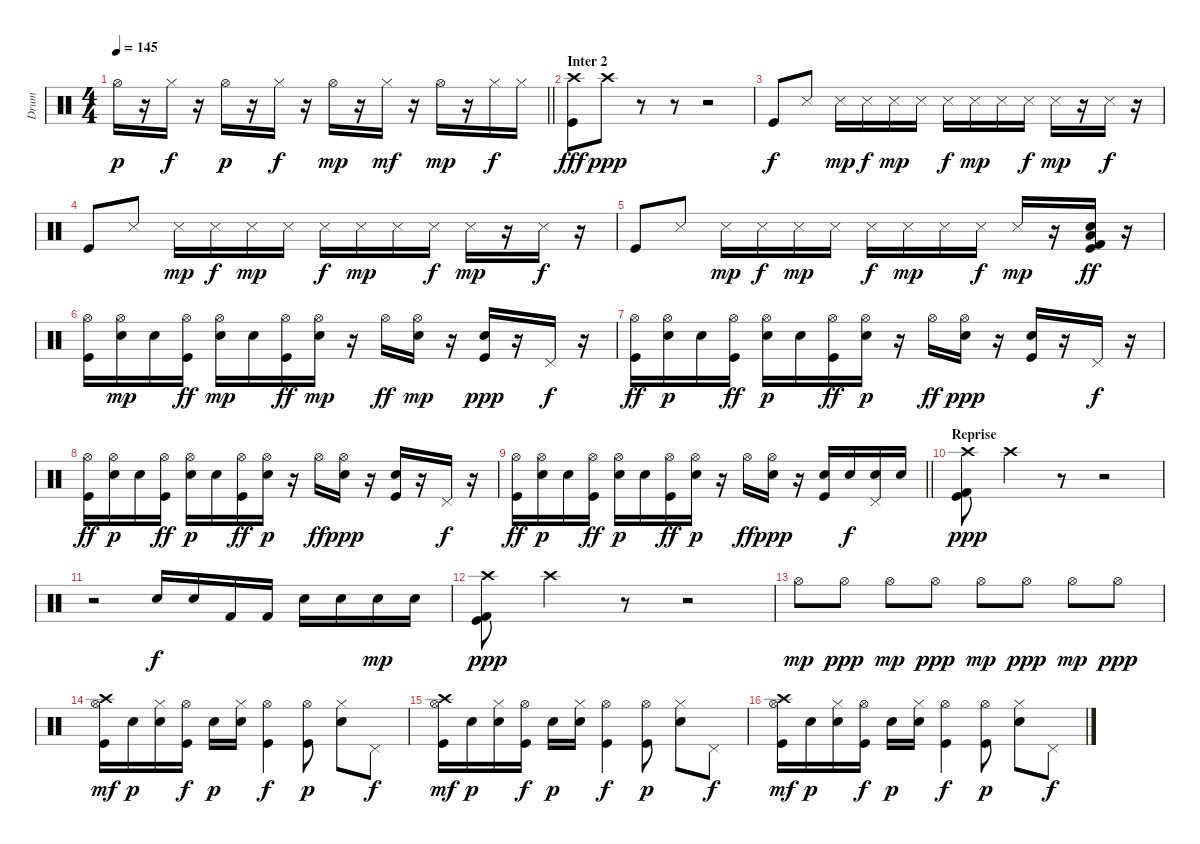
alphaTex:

\track ("Drum" "Drum") {instrument percussion}
\staff {score}
\articulation defaults
\ts (4 4)
\tempo 145
\clef neutral
\barLineRight lightlight
\ks c "Hi-Hat (open)".16{dy p}
r.16 "Hi-Hat (closed)".16{dy f} r.16 "Hi-Hat (open)".16{dy p} r.16 "Hi-Hat (closed)".16{dy f} r.16 "Hi-Hat (open)".16{dy mp} r.16 "Hi-Hat (closed)".16{dy mf} r.16 "Hi-Hat (open)".16{dy mp} r.16 "Hi-Hat (closed)".16{dy f} "Hi-Hat (closed)".16 |
\section ("" "Inter 2")
("Crash high (hit)" "Kick (hit)").8{dy fff} "Crash high (hit)".8{dy ppp} r.8 r.8 r.2 |
"Kick (hit)".8{dy f} "Snare (side stick) 3".8 "Metronome (hit)".16{dy mp} "Snare (side stick) 3".16{dy f} "Metronome (hit)".16{dy mp} "Metronome (hit)".16 "Snare (side stick) 3".16{dy f} "Metronome (hit)".16{dy mp} "Metronome (hit)".16 "Snare (side stick) 3".16{dy f} "Metronome (hit)".16{dy mp} r.16 "Snare (side stick) 3".16{dy f} r.16 |
"Kick (hit)".8 "Snare (side stick) 3".8 "Metronome (hit)".16{dy mp} "Snare (side stick) 3".16{dy f} "Metronome (hit)".16{dy mp} "Metronome (hit)".16 "Snare (side stick) 3".16{dy f} "Metronome (hit)".16{dy mp} "Metronome (hit)".16 "Snare (side stick) 3".16{dy f} "Metronome (hit)".16{dy mp} r.16 "Snare (side stick) 3".16{dy f} r.16 |
"Kick (hit)".8 "Snare (side stick) 3".8 "Metronome (hit)".16{dy mp} "Snare (side stick) 3".16{dy f} "Metronome (hit)".16{dy mp} "Metronome (hit)".16 "Snare (side stick) 3".16{dy f} "Metronome (hit)".16{dy mp} "Metronome (hit)".16 "Snare (side stick) 3".16{dy f} "Metronome (hit)".16{dy mp} r.16 ("Electric Snare (hit)" "Low Tom (hit)" "Kick (hit) 2" "Kick (hit)").16{dy ff} r.16 |
("Hi-Hat (open)" "Kick (hit)").16 ("Hi-Hat (open)" "Electric Snare (hit)").16{dy mp} "Electric Snare (hit)".16 ("Hi-Hat (open)" "Kick (hit)").16{dy ff} ("Hi-Hat (open)" "Electric Snare (hit)").16{dy mp} "Electric Snare (hit)".16 ("Hi-Hat (open)" "Kick (hit)").16{dy ff} ("Hi-Hat (open)" "Electric Snare (hit)").16{dy mp} r.16 "Hi-Hat (open)".16{dy ff} ("Hi-Hat (open)" "Electric Snare (hit)").16{dy mp} r.16 ("Electric Snare (hit)" "Kick (hit)").16{dy ppp} r.16 "Pedal Hi-Hat (hit)".16{dy f} r.16 |
("Hi-Hat (open)" "Kick (hit)").16{dy ff} ("Hi-Hat (open)" "Electric Snare (hit)").16{dy p} "Electric Snare (hit)".16 ("Hi-Hat (open)" "Kick (hit)").16{dy ff} ("Hi-Hat (open)" "Electric Snare (hit)").16{dy p} "Electric Snare (hit)".16 ("Hi-Hat (open)" "Kick (hit)").16{dy ff} ("Hi-Hat (open)" "Electric Snare (hit)").16{dy p} r.16 "Hi-Hat (open)".16{dy ff} ("Hi-Hat (open)" "Electric Snare (hit)").16{dy ppp} r.16 ("Electric Snare (hit)" "Kick (hit)").16 r.16 "Pedal Hi-Hat (hit)".16{dy f} r.16 |
("Hi-Hat (open)" "Kick (hit)").16{dy ff} ("Hi-Hat (open)" "Electric Snare (hit)").16{dy p} "Electric Snare (hit)".16 ("Hi-Hat (open)" "Kick (hit)").16{dy ff} ("Hi-Hat (open)" "Electric Snare (hit)").16{dy p} "Electric Snare (hit)".16 ("Hi-Hat (open)" "Kick (hit)").16{dy ff} ("Hi-Hat (open)" "Electric Snare (hit)").16{dy p} r.16 "Hi-Hat (open)".16{dy ff} ("Hi-Hat (open)" "Electric Snare (hit)").16{dy ppp} r.16 ("Electric Snare (hit)" "Kick (hit)").16 r.16 "Pedal Hi-Hat (hit)".16{dy f} r.16 |
\barLineRight lightlight
("Hi-Hat (open)" "Kick (hit)").16{dy ff} ("Hi-Hat (open)" "Electric Snare (hit)").16{dy p} "Electric Snare (hit)".16 ("Hi-Hat (open)" "Kick (hit)").16{dy ff} ("Hi-Hat (open)" "Electric Snare (hit)").16{dy p} "Electric Snare (hit)".16 ("Hi-Hat (open)" "Kick (hit)").16{dy ff} ("Hi-Hat (open)" "Electric Snare (hit)").16{dy p} r.16 "Hi-Hat (open)".16{dy ff} ("Hi-Hat (open)" "Electric Snare (hit)").16{dy ppp} r.16 ("Electric Snare (hit)" "Kick (hit)").16 "Electric Snare (hit)".16{dy f} ("Pedal Hi-Hat (hit)" "Electric Snare (hit)").16 "Electric Snare (hit)".16 |
\section ("" "Reprise")
("Crash high (hit)" "Kick (hit) 2" "Kick (hit)").8{dy ppp} "Crash high (hit)".4 r.8 r.2 |
r.2 "Electric Snare (hit)".16{dy f} "Electric Snare (hit)".16 "Kick (hit) 2".16 "Kick (hit) 2".16 "Electric Snare (hit)".16 "Electric Snare (hit)".16 "Electric Snare (hit)".16{dy mp} "Electric Snare (hit)".16 |
("Crash high (hit)" "Kick (hit) 2" "Kick (hit)").8{dy ppp} "Crash high (hit)".4 r.8 r.2 |
"Hi-Hat (open)".8{dy mp} "Hi-Hat (open)".8{dy ppp} "Hi-Hat (open)".8{dy mp} "Hi-Hat (open)".8{dy ppp} "Hi-Hat (open)".8{dy mp} "Hi-Hat (open)".8{dy ppp} "Hi-Hat (open)".8{dy mp} "Hi-Hat (open)".8{dy ppp} |
("Hi-Hat (open)" "Crash high (hit)" "Kick (hit)").16{dy mf} "Electric Snare (hit)".16{dy p} ("Hi-Hat (closed)" "Electric Snare (hit)").16 ("Hi-Hat (open)" "Kick (hit)").16{dy f} "Electric Snare (hit)".16{dy p} ("Hi-Hat (closed)" "Electric Snare (hit)").16 ("Hi-Hat (open)" "Kick (hit)").4{dy f} ("Hi-Hat (open)" "Kick (hit)").8{dy p} ("Hi-Hat (closed)" "Electric Snare (hit)").8 "Pedal Hi-Hat (hit)".8{dy f} |
("Hi-Hat (open)" "Crash high (hit)" "Kick (hit)").16{dy mf} "Electric Snare (hit)".16{dy p} ("Hi-Hat (closed)" "Electric Snare (hit)").16 ("Hi-Hat (open)" "Kick (hit)").16{dy f} "Electric Snare (hit)".16{dy p} ("Hi-Hat (closed)" "Electric Snare (hit)").16 ("Hi-Hat (open)" "Kick (hit)").4{dy f} ("Hi-Hat (open)" "Kick (hit)").8{dy p} ("Hi-Hat (closed)" "Electric Snare (hit)").8 "Pedal Hi-Hat (hit)".8{dy f} |
("Hi-Hat (open)" "Crash high (hit)" "Kick (hit)").16{dy mf} "Electric Snare (hit)".16{dy p} ("Hi-Hat (closed)" "Electric Snare (hit)").16 ("Hi-Hat (open)" "Kick (hit)").16{dy f} "Electric Snare (hit)".16{dy p} ("Hi-Hat (closed)" "Electric Snare (hit)").16 ("Hi-Hat (open)" "Kick (hit)").4{dy f} ("Hi-Hat (open)" "Kick (hit)").8{dy p} ("Hi-Hat (closed)" "Electric Snare (hit)").8 "Pedal Hi-Hat (hit)".8{dy f}
